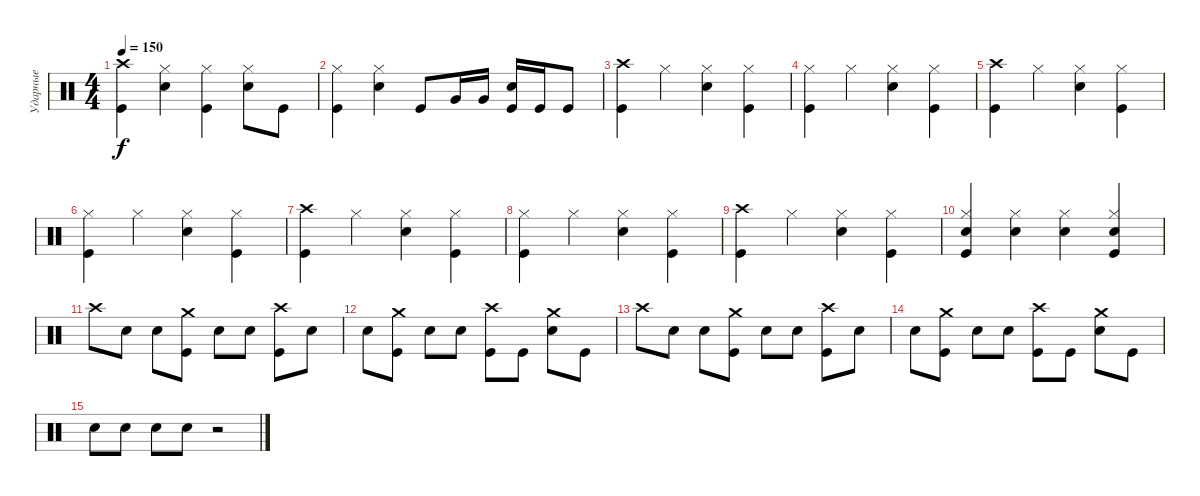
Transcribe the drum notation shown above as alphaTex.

\track ("Ударные" "Ударные") {instrument percussion}
\staff {score}
\articulation defaults
\ts (4 4)
\tempo 150
\clef neutral
\ks c
("Crash high (hit)" "Kick (hit)").4{dy f} ("Hi-Hat (closed)" "Electric Snare (hit)").4 ("Hi-Hat (closed)" "Kick (hit)").4 ("Hi-Hat (closed)" "Electric Snare (hit)").8 "Kick (hit)".8 |
("Hi-Hat (closed)" "Kick (hit)").4 ("Hi-Hat (closed)" "Electric Snare (hit)").4 "Kick (hit)".8 "Very Low Tom (hit)".16 "Very Low Tom (hit)".16 ("Electric Snare (hit)" "Kick (hit)").16 "Kick (hit)".16 "Kick (hit)".8 |
("Crash high (hit)" "Kick (hit)").4 "Hi-Hat (closed)".4 ("Hi-Hat (closed)" "Electric Snare (hit)").4 ("Hi-Hat (closed)" "Kick (hit)").4 |
("Hi-Hat (closed)" "Kick (hit)").4 "Hi-Hat (closed)".4 ("Hi-Hat (closed)" "Electric Snare (hit)").4 ("Hi-Hat (closed)" "Kick (hit)").4 |
("Crash high (hit)" "Kick (hit)").4 "Hi-Hat (closed)".4 ("Hi-Hat (closed)" "Electric Snare (hit)").4 ("Hi-Hat (closed)" "Kick (hit)").4 |
("Hi-Hat (closed)" "Kick (hit)").4 "Hi-Hat (closed)".4 ("Hi-Hat (closed)" "Electric Snare (hit)").4 ("Hi-Hat (closed)" "Kick (hit)").4 |
("Crash high (hit)" "Kick (hit)").4 "Hi-Hat (closed)".4 ("Hi-Hat (closed)" "Electric Snare (hit)").4 ("Hi-Hat (closed)" "Kick (hit)").4 |
("Hi-Hat (closed)" "Kick (hit)").4 "Hi-Hat (closed)".4 ("Hi-Hat (closed)" "Electric Snare (hit)").4 ("Hi-Hat (closed)" "Kick (hit)").4 |
("Crash high (hit)" "Kick (hit)").4 "Hi-Hat (closed)".4 ("Hi-Hat (closed)" "Electric Snare (hit)").4 ("Hi-Hat (closed)" "Kick (hit)").4 |
("Hi-Hat (closed)" "Electric Snare (hit)" "Kick (hit)").4 ("Hi-Hat (closed)" "Electric Snare (hit)").4 ("Hi-Hat (closed)" "Electric Snare (hit)").4 ("Hi-Hat (closed)" "Electric Snare (hit)" "Kick (hit)").4 |
"Crash high (hit)".8 "Electric Snare (hit)".8 "Electric Snare (hit)".8 ("Kick (hit)" "Crash medium (hit)").8 "Electric Snare (hit)".8 "Electric Snare (hit)".8 ("Kick (hit)" "Crash high (hit)").8 "Electric Snare (hit)".8 |
"Electric Snare (hit)".8 ("Kick (hit)" "Crash medium (hit)").8 "Electric Snare (hit)".8 "Electric Snare (hit)".8 ("Kick (hit)" "Crash high (hit)").8 "Kick (hit)".8 ("Electric Snare (hit)" "Crash medium (hit)").8 "Kick (hit)".8 |
"Crash high (hit)".8 "Electric Snare (hit)".8 "Electric Snare (hit)".8 ("Kick (hit)" "Crash medium (hit)").8 "Electric Snare (hit)".8 "Electric Snare (hit)".8 ("Kick (hit)" "Crash high (hit)").8 "Electric Snare (hit)".8 |
"Electric Snare (hit)".8 ("Kick (hit)" "Crash medium (hit)").8 "Electric Snare (hit)".8 "Electric Snare (hit)".8 ("Kick (hit)" "Crash high (hit)").8 "Kick (hit)".8 ("Electric Snare (hit)" "Crash medium (hit)").8 "Kick (hit)".8 |
"Electric Snare (hit)".8 "Electric Snare (hit)".8 "Electric Snare (hit)".8 "Electric Snare (hit)".8 r.2
